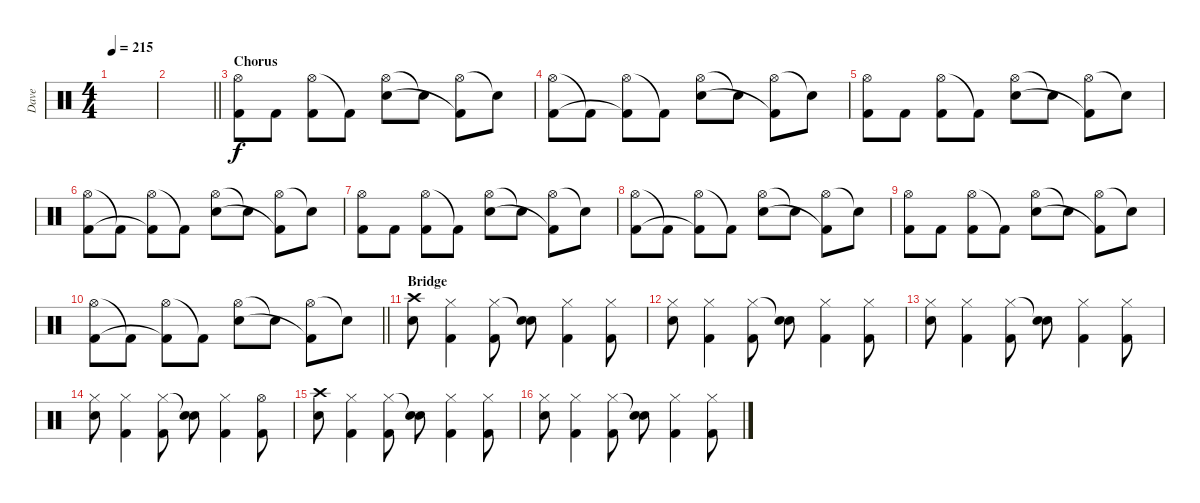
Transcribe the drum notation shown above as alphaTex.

\track ("Dave" "Dave") {instrument percussion}
\staff {score}
\articulation defaults
\ts (4 4)
\tempo 215
\clef neutral
\ks c
|
\barLineRight lightlight
|
\section ("" "Chorus")
("Hi-Hat (open)" "Kick (hit) 2").8 "Kick (hit) 2".8 ("Hi-Hat (open)" "Kick (hit) 2").8 "Kick (hit) 2"{t}.8 ("Hi-Hat (open)" "Electric Snare (hit)").8 "Snare (hit)"{t}.8 ("Hi-Hat (open)" "Kick (hit) 2"{t}).8 "Snare (hit)"{t}.8 |
("Hi-Hat (open)" "Kick (hit) 2").8 "Kick (hit) 2"{t}.8 ("Hi-Hat (open)" "Kick (hit) 2"{t}).8 "Kick (hit) 2"{t}.8 ("Hi-Hat (open)" "Electric Snare (hit)").8 "Snare (hit)"{t}.8 ("Hi-Hat (open)" "Kick (hit) 2"{t}).8 "Snare (hit)"{t}.8 |
("Hi-Hat (open)" "Kick (hit) 2").8 "Kick (hit) 2".8 ("Hi-Hat (open)" "Kick (hit) 2").8 "Kick (hit) 2"{t}.8 ("Hi-Hat (open)" "Electric Snare (hit)").8 "Snare (hit)"{t}.8 ("Hi-Hat (open)" "Kick (hit) 2"{t}).8 "Snare (hit)"{t}.8 |
("Hi-Hat (open)" "Kick (hit) 2").8 "Kick (hit) 2"{t}.8 ("Hi-Hat (open)" "Kick (hit) 2"{t}).8 "Kick (hit) 2"{t}.8 ("Hi-Hat (open)" "Electric Snare (hit)").8 "Snare (hit)"{t}.8 ("Hi-Hat (open)" "Kick (hit) 2"{t}).8 "Snare (hit)"{t}.8 |
("Hi-Hat (open)" "Kick (hit) 2").8 "Kick (hit) 2".8 ("Hi-Hat (open)" "Kick (hit) 2").8 "Kick (hit) 2"{t}.8 ("Hi-Hat (open)" "Electric Snare (hit)").8 "Snare (hit)"{t}.8 ("Hi-Hat (open)" "Kick (hit) 2"{t}).8 "Snare (hit)"{t}.8 |
("Hi-Hat (open)" "Kick (hit) 2").8 "Kick (hit) 2"{t}.8 ("Hi-Hat (open)" "Kick (hit) 2"{t}).8 "Kick (hit) 2"{t}.8 ("Hi-Hat (open)" "Electric Snare (hit)").8 "Snare (hit)"{t}.8 ("Hi-Hat (open)" "Kick (hit) 2"{t}).8 "Snare (hit)"{t}.8 |
("Hi-Hat (open)" "Kick (hit) 2").8 "Kick (hit) 2".8 ("Hi-Hat (open)" "Kick (hit) 2").8 "Kick (hit) 2"{t}.8 ("Hi-Hat (open)" "Electric Snare (hit)").8 "Snare (hit)"{t}.8 ("Hi-Hat (open)" "Kick (hit) 2"{t}).8 "Snare (hit)"{t}.8 |
\barLineRight lightlight
("Hi-Hat (open)" "Kick (hit) 2").8 "Kick (hit) 2"{t}.8 ("Hi-Hat (open)" "Kick (hit) 2"{t}).8 "Kick (hit) 2"{t}.8 ("Hi-Hat (open)" "Electric Snare (hit)").8 "Snare (hit)"{t}.8 ("Hi-Hat (open)" "Kick (hit) 2"{t}).8 "Snare (hit)"{t}.8 |
\section ("" "Bridge")
("Crash high (hit)" "Electric Snare (hit)").8 ("Hi-Hat (closed)" "Kick (hit) 2").4 ("Hi-Hat (closed)" "Kick (hit) 2").8 ("Snare (hit)"{t} "Electric Snare (hit)").8 ("Hi-Hat (closed)" "Kick (hit) 2").4 ("Hi-Hat (closed)" "Kick (hit) 2").8 |
("Hi-Hat (closed)" "Electric Snare (hit)").8 ("Hi-Hat (closed)" "Kick (hit) 2").4 ("Hi-Hat (closed)" "Kick (hit) 2").8 ("Snare (hit)"{t} "Electric Snare (hit)").8 ("Hi-Hat (closed)" "Kick (hit) 2").4 ("Hi-Hat (closed)" "Kick (hit) 2").8 |
("Hi-Hat (closed)" "Electric Snare (hit)").8 ("Hi-Hat (closed)" "Kick (hit) 2").4 ("Hi-Hat (closed)" "Kick (hit) 2").8 ("Snare (hit)"{t} "Electric Snare (hit)").8 ("Hi-Hat (closed)" "Kick (hit) 2").4 ("Hi-Hat (closed)" "Kick (hit) 2").8 |
("Hi-Hat (closed)" "Electric Snare (hit)").8 ("Hi-Hat (closed)" "Kick (hit) 2").4 ("Hi-Hat (closed)" "Kick (hit) 2").8 ("Snare (hit)"{t} "Electric Snare (hit)").8 ("Hi-Hat (closed)" "Kick (hit) 2").4 ("Hi-Hat (open)" "Kick (hit) 2").8 |
("Crash high (hit)" "Electric Snare (hit)").8 ("Hi-Hat (closed)" "Kick (hit) 2").4 ("Hi-Hat (closed)" "Kick (hit) 2").8 ("Snare (hit)"{t} "Electric Snare (hit)").8 ("Hi-Hat (closed)" "Kick (hit) 2").4 ("Hi-Hat (closed)" "Kick (hit) 2").8 |
("Hi-Hat (closed)" "Electric Snare (hit)").8 ("Hi-Hat (closed)" "Kick (hit) 2").4 ("Hi-Hat (closed)" "Kick (hit) 2").8 ("Snare (hit)"{t} "Electric Snare (hit)").8 ("Hi-Hat (closed)" "Kick (hit) 2").4 ("Hi-Hat (closed)" "Kick (hit) 2").8
